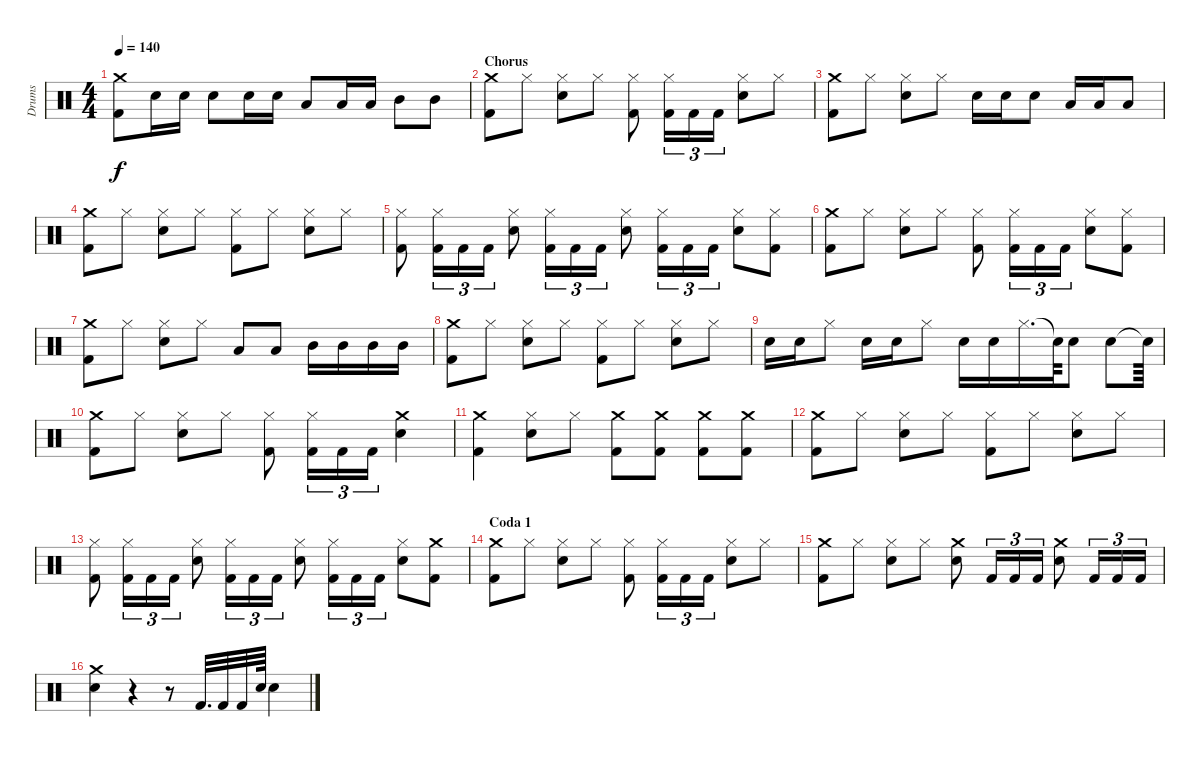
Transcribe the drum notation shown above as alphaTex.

\track ("Drums" "Drums") {instrument percussion}
\staff {score}
\articulation defaults
\ts (4 4)
\tempo 140
\clef neutral
\ks c
("Crash medium (hit)" "Kick (hit) 2").8{dy f} "Snare (hit) 2".16 "Snare (hit) 2".16 "Snare (hit) 2".8 "Snare (hit) 2".16 "Snare (hit) 2".16 "Low Tom (hit)".8 "Low Tom (hit)".16 "Low Tom (hit)".16 "Mid Tom (hit)".8 "Mid Tom (hit)".8 |
\section ("" "Chorus")
("Crash medium (hit)" "Kick (hit) 2").8 "Hi-Hat (closed)".8 ("Snare (hit) 2" "Hi-Hat (closed)").8 "Hi-Hat (closed)".8 ("Kick (hit) 2" "Hi-Hat (closed)").8 ("Kick (hit) 2" "Hi-Hat (closed)").16{tu (3 2)} "Kick (hit) 2".16{tu (3 2)} "Kick (hit) 2".16{tu (3 2)} ("Snare (hit) 2" "Hi-Hat (closed)").8 "Hi-Hat (closed)".8 |
("Kick (hit) 2" "Crash medium (hit)").8 "Hi-Hat (closed)".8 ("Snare (hit) 2" "Hi-Hat (closed)").8 "Hi-Hat (closed)".8 "Snare (hit) 2".16 "Snare (hit) 2".16 "Snare (hit) 2".8 "Low Tom (hit)".16 "Low Tom (hit)".16 "Low Tom (hit)".8 |
("Crash medium (hit)" "Kick (hit) 2").8 "Hi-Hat (closed)".8 ("Snare (hit) 2" "Hi-Hat (closed)").8 "Hi-Hat (closed)".8 ("Hi-Hat (closed)" "Kick (hit) 2").8 "Hi-Hat (closed)".8 ("Snare (hit) 2" "Hi-Hat (closed)").8 "Hi-Hat (closed)".8 |
("Kick (hit) 2" "Hi-Hat (closed)").8 ("Kick (hit) 2" "Hi-Hat (closed)").16{tu (3 2)} "Kick (hit) 2".16{tu (3 2)} "Kick (hit) 2".16{tu (3 2)} ("Snare (hit) 2" "Hi-Hat (closed)").8 ("Kick (hit) 2" "Hi-Hat (closed)").16{tu (3 2)} "Kick (hit) 2".16{tu (3 2)} "Kick (hit) 2".16{tu (3 2)} ("Snare (hit) 2" "Hi-Hat (closed)").8 ("Kick (hit) 2" "Hi-Hat (closed)").16{tu (3 2)} "Kick (hit) 2".16{tu (3 2)} "Kick (hit) 2".16{tu (3 2)} ("Snare (hit) 2" "Hi-Hat (closed)").8 ("Kick (hit) 2" "Hi-Hat (closed)").8 |
("Crash medium (hit)" "Kick (hit) 2").8 "Hi-Hat (closed)".8 ("Snare (hit) 2" "Hi-Hat (closed)").8 "Hi-Hat (closed)".8 ("Hi-Hat (closed)" "Kick (hit) 2").8 ("Hi-Hat (closed)" "Kick (hit) 2").16{tu (3 2)} "Kick (hit) 2".16{tu (3 2)} "Kick (hit) 2".16{tu (3 2)} ("Snare (hit) 2" "Hi-Hat (closed)").8 ("Hi-Hat (closed)" "Kick (hit) 2").8 |
("Kick (hit) 2" "Crash medium (hit)").8 "Hi-Hat (closed)".8 ("Snare (hit) 2" "Hi-Hat (closed)").8 "Hi-Hat (closed)".8 "Low Tom (hit)".8 "Low Tom (hit)".8 "Mid Tom (hit)".16 "Mid Tom (hit)".16 "Mid Tom (hit)".16 "Mid Tom (hit)".16 |
("Crash medium (hit)" "Kick (hit) 2").8 "Hi-Hat (closed)".8 ("Snare (hit) 2" "Hi-Hat (closed)").8 "Hi-Hat (closed)".8 ("Hi-Hat (closed)" "Kick (hit) 2").8 "Hi-Hat (closed)".8 ("Snare (hit) 2" "Hi-Hat (closed)").8 "Hi-Hat (closed)".8 |
"Snare (hit) 2".16 "Snare (hit) 2".16 "Hi-Hat (closed)".8 "Snare (hit) 2".16 "Snare (hit) 2".16 "Hi-Hat (closed)".8 "Snare (hit) 2".16 "Snare (hit) 2".16 "Hi-Hat (closed)".16{d} "Snare (hit)"{t}.64 "Snare (hit) 2".8 "Snare (hit) 2".8 "Snare (hit)"{t}.64 |
("Crash medium (hit)" "Kick (hit) 2").8 "Hi-Hat (closed)".8 ("Snare (hit) 2" "Hi-Hat (closed)").8 "Hi-Hat (closed)".8 ("Hi-Hat (closed)" "Kick (hit) 2").8 ("Hi-Hat (closed)" "Kick (hit) 2").16{tu (3 2)} "Kick (hit) 2".16{tu (3 2)} "Kick (hit) 2".16{tu (3 2)} ("Snare (hit) 2" "Crash medium (hit)").4 |
("Kick (hit) 2" "Crash medium (hit)").4 ("Snare (hit) 2" "Hi-Hat (closed)").8 "Hi-Hat (closed)".8 ("Kick (hit) 2" "Crash medium (hit)").8 ("Kick (hit) 2" "Crash medium (hit)").8 ("Kick (hit) 2" "Crash medium (hit)").8 ("Kick (hit) 2" "Crash medium (hit)").8 |
("Crash medium (hit)" "Kick (hit) 2").8 "Hi-Hat (closed)".8 ("Snare (hit) 2" "Hi-Hat (closed)").8 "Hi-Hat (closed)".8 ("Hi-Hat (closed)" "Kick (hit) 2").8 "Hi-Hat (closed)".8 ("Snare (hit) 2" "Hi-Hat (closed)").8 "Hi-Hat (closed)".8 |
("Kick (hit) 2" "Hi-Hat (closed)").8 ("Kick (hit) 2" "Hi-Hat (closed)").16{tu (3 2)} "Kick (hit) 2".16{tu (3 2)} "Kick (hit) 2".16{tu (3 2)} ("Snare (hit) 2" "Hi-Hat (closed)").8 ("Kick (hit) 2" "Hi-Hat (closed)").16{tu (3 2)} "Kick (hit) 2".16{tu (3 2)} "Kick (hit) 2".16{tu (3 2)} ("Snare (hit) 2" "Hi-Hat (closed)").8 ("Kick (hit) 2" "Hi-Hat (closed)").16{tu (3 2)} "Kick (hit) 2".16{tu (3 2)} "Kick (hit) 2".16{tu (3 2)} ("Snare (hit) 2" "Hi-Hat (closed)").8 ("Crash medium (hit)" "Kick (hit) 2").8 |
\section ("" "Coda 1")
("Kick (hit) 2" "Crash medium (hit)").8 "Hi-Hat (closed)".8 ("Snare (hit) 2" "Hi-Hat (closed)").8 "Hi-Hat (closed)".8 ("Kick (hit) 2" "Hi-Hat (closed)").8 ("Kick (hit) 2" "Hi-Hat (closed)").16{tu (3 2)} "Kick (hit) 2".16{tu (3 2)} "Kick (hit) 2".16{tu (3 2)} ("Snare (hit) 2" "Hi-Hat (closed)").8 "Hi-Hat (closed)".8 |
("Crash medium (hit)" "Kick (hit) 2").8 "Hi-Hat (closed)".8 ("Snare (hit) 2" "Hi-Hat (closed)").8 "Hi-Hat (closed)".8 ("Snare (hit) 2" "Crash medium (hit)").8 "Kick (hit) 2".16{tu (3 2)} "Kick (hit) 2".16{tu (3 2)} "Kick (hit) 2".16{tu (3 2)} ("Snare (hit) 2" "Crash medium (hit)").8 "Kick (hit) 2".16{tu (3 2)} "Kick (hit) 2".16{tu (3 2)} "Kick (hit) 2".16{tu (3 2)} |
("Snare (hit) 2" "Crash medium (hit)").4 r.4 r.8 "Kick (hit) 2".32{d} "Kick (hit) 2".32 "Kick (hit) 2".32 "Snare (hit) 2".64 "Snare (hit) 2".4
